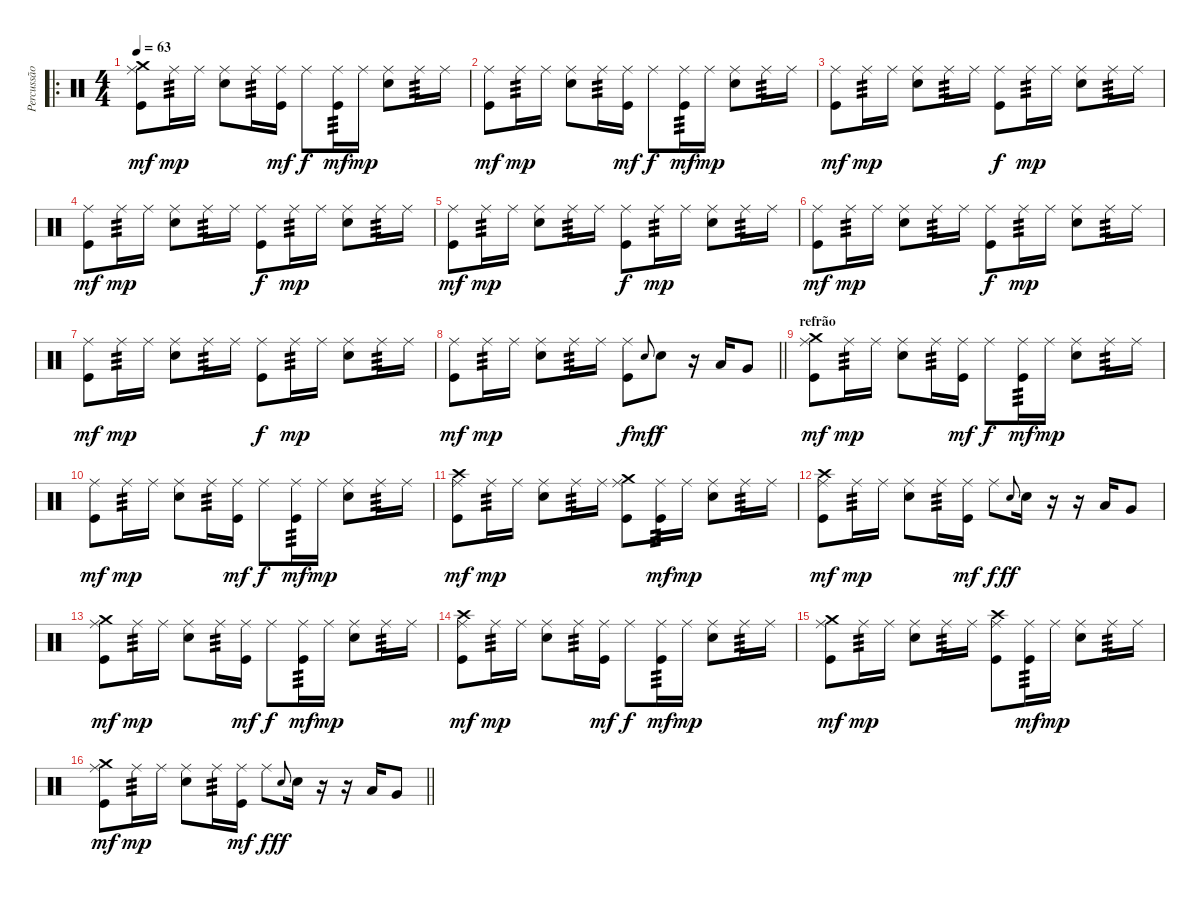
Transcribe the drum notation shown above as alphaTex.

\track ("Percussão" "Percussão") {instrument percussion}
\staff {score}
\articulation defaults
\ro
\ts (4 4)
\tempo 63
\clef neutral
\ks c
("Ride (middle)" "Crash medium (hit)" "Kick (hit)").8{dy mf} "Ride (middle)".16{tp 3 dy mp} "Ride (middle)".16 ("Ride (middle)" "Snare (hit) 2").8 "Ride (middle)".16{tp 3} ("Ride (middle)" "Kick (hit)").16{dy mf} "Ride (middle)".8{dy f} ("Ride (middle)" "Kick (hit)").16{tp 3 dy mf} "Ride (middle)".16{dy mp} ("Ride (middle)" "Snare (hit) 2").8 "Ride (middle)".16{tp 3} "Ride (middle)".16 |
("Ride (middle)" "Kick (hit)").8{dy mf} "Ride (middle)".16{tp 3 dy mp} "Ride (middle)".16 ("Ride (middle)" "Snare (hit) 2").8 "Ride (middle)".16{tp 3} ("Ride (middle)" "Kick (hit)").16{dy mf} "Ride (middle)".8{dy f} ("Ride (middle)" "Kick (hit)").16{tp 3 dy mf} "Ride (middle)".16{dy mp} ("Ride (middle)" "Snare (hit) 2").8 "Ride (middle)".16{tp 3} "Ride (middle)".16 |
("Ride (middle)" "Kick (hit)").8{dy mf} "Ride (middle)".16{tp 3 dy mp} "Ride (middle)".16 ("Ride (middle)" "Snare (hit) 2").8 "Ride (middle)".16{tp 3} "Ride (middle)".16 ("Ride (middle)" "Kick (hit)").8{dy f} "Ride (middle)".16{tp 3 dy mp} "Ride (middle)".16 ("Ride (middle)" "Snare (hit) 2").8 "Ride (middle)".16{tp 3} "Ride (middle)".16 |
("Ride (middle)" "Kick (hit)").8{dy mf} "Ride (middle)".16{tp 3 dy mp} "Ride (middle)".16 ("Ride (middle)" "Snare (hit) 2").8 "Ride (middle)".16{tp 3} "Ride (middle)".16 ("Ride (middle)" "Kick (hit)").8{dy f} "Ride (middle)".16{tp 3 dy mp} "Ride (middle)".16 ("Ride (middle)" "Snare (hit) 2").8 "Ride (middle)".16{tp 3} "Ride (middle)".16 |
("Ride (middle)" "Kick (hit)").8{dy mf} "Ride (middle)".16{tp 3 dy mp} "Ride (middle)".16 ("Ride (middle)" "Snare (hit) 2").8 "Ride (middle)".16{tp 3} "Ride (middle)".16 ("Ride (middle)" "Kick (hit)").8{dy f} "Ride (middle)".16{tp 3 dy mp} "Ride (middle)".16 ("Ride (middle)" "Snare (hit) 2").8 "Ride (middle)".16{tp 3} "Ride (middle)".16 |
("Ride (middle)" "Kick (hit)").8{dy mf} "Ride (middle)".16{tp 3 dy mp} "Ride (middle)".16 ("Ride (middle)" "Snare (hit) 2").8 "Ride (middle)".16{tp 3} "Ride (middle)".16 ("Ride (middle)" "Kick (hit)").8{dy f} "Ride (middle)".16{tp 3 dy mp} "Ride (middle)".16 ("Ride (middle)" "Snare (hit) 2").8 "Ride (middle)".16{tp 3} "Ride (middle)".16 |
("Ride (middle)" "Kick (hit)").8{dy mf} "Ride (middle)".16{tp 3 dy mp} "Ride (middle)".16 ("Ride (middle)" "Snare (hit) 2").8 "Ride (middle)".16{tp 3} "Ride (middle)".16 ("Ride (middle)" "Kick (hit)").8{dy f} "Ride (middle)".16{tp 3 dy mp} "Ride (middle)".16 ("Ride (middle)" "Snare (hit) 2").8 "Ride (middle)".16{tp 3} "Ride (middle)".16 |
\barLineRight lightlight
("Ride (middle)" "Kick (hit)").8{dy mf} "Ride (middle)".16{tp 3 dy mp} "Ride (middle)".16 ("Ride (middle)" "Snare (hit) 2").8 "Ride (middle)".16{tp 3} "Ride (middle)".16 ("Ride (middle)" "Kick (hit)").8{dy f} "Snare (hit) 2"{h}.8{gr onbeat dy mf} "Snare (hit) 2".8{dy f} r.16 "Low Tom (hit)".16 "Very Low Tom (hit)".8 |
\section ("" "refrão")
("Ride (middle)" "Crash medium (hit)" "Kick (hit)").8{dy mf} "Ride (middle)".16{tp 3 dy mp} "Ride (middle)".16 ("Ride (middle)" "Snare (hit) 2").8 "Ride (middle)".16{tp 3} ("Ride (middle)" "Kick (hit)").16{dy mf} "Ride (middle)".8{dy f} ("Ride (middle)" "Kick (hit)").16{tp 3 dy mf} "Ride (middle)".16{dy mp} ("Ride (middle)" "Snare (hit) 2").8 "Ride (middle)".16{tp 3} "Ride (middle)".16 |
("Ride (middle)" "Kick (hit)").8{dy mf} "Ride (middle)".16{tp 3 dy mp} "Ride (middle)".16 ("Ride (middle)" "Snare (hit) 2").8 "Ride (middle)".16{tp 3} ("Ride (middle)" "Kick (hit)").16{dy mf} "Ride (middle)".8{dy f} ("Ride (middle)" "Kick (hit)").16{tp 3 dy mf} "Ride (middle)".16{dy mp} ("Ride (middle)" "Snare (hit) 2").8 "Ride (middle)".16{tp 3} "Ride (middle)".16 |
("Ride (middle)" "Crash high (hit)" "Kick (hit)").8{dy mf} "Ride (middle)".16{tp 3 dy mp} "Ride (middle)".16 ("Ride (middle)" "Snare (hit) 2").8 "Ride (middle)".16{tp 3} "Ride (middle)".16 ("Ride (middle)" "Crash medium (hit)" "Kick (hit)").8 ("Ride (middle)" "Kick (hit)").16{tp 3 dy mf} "Ride (middle)".16{dy mp} ("Ride (middle)" "Snare (hit) 2").8 "Ride (middle)".16{tp 3} "Ride (middle)".16 |
("Ride (middle)" "Crash high (hit)" "Kick (hit)").8{dy mf} "Ride (middle)".16{tp 3 dy mp} "Ride (middle)".16 ("Ride (middle)" "Snare (hit) 2").8 "Ride (middle)".16{tp 3} ("Ride (middle)" "Kick (hit)").16{dy mf} "Ride (middle)".8{dy f} "Snare (hit) 2"{h x}.8{gr onbeat dy ff} "Snare (hit) 2".16 r.16 r.16 "Low Tom (hit)".16 "Very Low Tom (hit)".8 |
("Ride (middle)" "Crash medium (hit)" "Kick (hit)").8{dy mf} "Ride (middle)".16{tp 3 dy mp} "Ride (middle)".16 ("Ride (middle)" "Snare (hit) 2").8 "Ride (middle)".16{tp 3} ("Ride (middle)" "Kick (hit)").16{dy mf} "Ride (middle)".8{dy f} ("Ride (middle)" "Kick (hit)").16{tp 3 dy mf} "Ride (middle)".16{dy mp} ("Ride (middle)" "Snare (hit) 2").8 "Ride (middle)".16{tp 3} "Ride (middle)".16 |
("Ride (middle)" "Crash high (hit)" "Kick (hit)").8{dy mf} "Ride (middle)".16{tp 3 dy mp} "Ride (middle)".16 ("Ride (middle)" "Snare (hit) 2").8 "Ride (middle)".16{tp 3} ("Ride (middle)" "Kick (hit)").16{dy mf} "Ride (middle)".8{dy f} ("Ride (middle)" "Kick (hit)").16{tp 3 dy mf} "Ride (middle)".16{dy mp} ("Ride (middle)" "Snare (hit) 2").8 "Ride (middle)".16{tp 3} "Ride (middle)".16 |
("Ride (middle)" "Crash medium (hit)" "Kick (hit)").8{dy mf} "Ride (middle)".16{tp 3 dy mp} "Ride (middle)".16 ("Ride (middle)" "Snare (hit) 2").8 "Ride (middle)".16{tp 3} "Ride (middle)".16 ("Ride (middle)" "Crash high (hit)" "Kick (hit)").8 ("Ride (middle)" "Kick (hit)").16{tp 3 dy mf} "Ride (middle)".16{dy mp} ("Ride (middle)" "Snare (hit) 2").8 "Ride (middle)".16{tp 3} "Ride (middle)".16 |
\barLineRight lightlight
("Ride (middle)" "Crash medium (hit)" "Kick (hit)").8{dy mf} "Ride (middle)".16{tp 3 dy mp} "Ride (middle)".16 ("Ride (middle)" "Snare (hit) 2").8 "Ride (middle)".16{tp 3} ("Ride (middle)" "Kick (hit)").16{dy mf} "Ride (middle)".8{dy f} "Snare (hit) 2"{h x}.8{gr onbeat dy ff} "Snare (hit) 2".16 r.16 r.16 "Low Tom (hit)".16 "Very Low Tom (hit)".8
